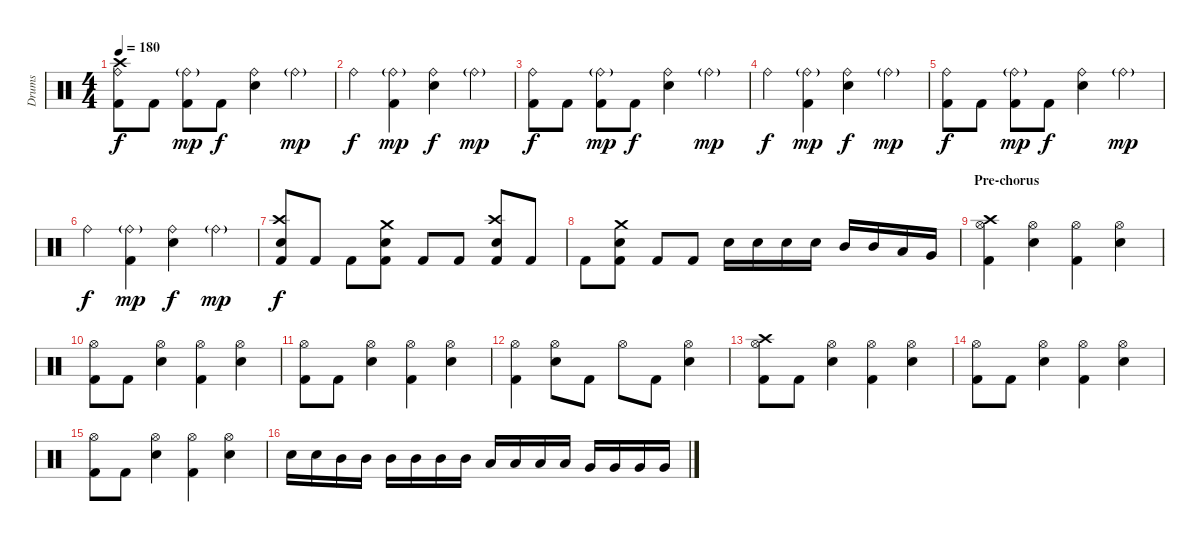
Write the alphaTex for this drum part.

\track ("Drums" "Drums") {instrument percussion}
\staff {score}
\articulation defaults
\ts (4 4)
\tempo 180
\clef neutral
\ks c
("Ride (bell)" "Kick (hit) 2" "Crash high (hit)").8{dy f} "Kick (hit) 2".8 ("Ride (bell)"{g} "Kick (hit) 2").8{dy mp} "Kick (hit) 2".8{dy f} ("Ride (bell)" "Electric Snare (hit)").4 "Ride (bell)"{g}.4{dy mp} |
"Ride (bell)".4{dy f} ("Ride (bell)"{g} "Kick (hit) 2").4{dy mp} ("Ride (bell)" "Electric Snare (hit)").4{dy f} "Ride (bell)"{g}.4{dy mp} |
("Ride (bell)" "Kick (hit) 2").8{dy f} "Kick (hit) 2".8 ("Ride (bell)"{g} "Kick (hit) 2").8{dy mp} "Kick (hit) 2".8{dy f} ("Ride (bell)" "Electric Snare (hit)").4 "Ride (bell)"{g}.4{dy mp} |
"Ride (bell)".4{dy f} ("Ride (bell)"{g} "Kick (hit) 2").4{dy mp} ("Ride (bell)" "Electric Snare (hit)").4{dy f} "Ride (bell)"{g}.4{dy mp} |
("Ride (bell)" "Kick (hit) 2").8{dy f} "Kick (hit) 2".8 ("Ride (bell)"{g} "Kick (hit) 2").8{dy mp} "Kick (hit) 2".8{dy f} ("Ride (bell)" "Electric Snare (hit)").4 "Ride (bell)"{g}.4{dy mp} |
"Ride (bell)".4{dy f} ("Ride (bell)"{g} "Kick (hit) 2").4{dy mp} ("Ride (bell)" "Electric Snare (hit)").4{dy f} "Ride (bell)"{g}.4{dy mp} |
("Kick (hit) 2" "Electric Snare (hit)" "Crash high (hit)").8{dy f} "Kick (hit) 2".8 "Kick (hit) 2".8 ("Kick (hit) 2" "Electric Snare (hit)" "Crash medium (hit)").8 "Kick (hit) 2".8 "Kick (hit) 2".8 ("Kick (hit) 2" "Electric Snare (hit)" "Crash high (hit)").8 "Kick (hit) 2".8 |
"Kick (hit) 2".8 ("Kick (hit) 2" "Electric Snare (hit)" "Crash medium (hit)").8 "Kick (hit) 2".8 "Kick (hit) 2".8 "Electric Snare (hit)".16 "Electric Snare (hit)".16 "Electric Snare (hit)".16 "Electric Snare (hit)".16 "Mid Tom (hit)".16 "Mid Tom (hit)".16 "Low Tom (hit)".16 "Very Low Tom (hit)".16 |
\section ("" "Pre-chorus")
("Hi-Hat (open)" "Kick (hit) 2" "Crash high (hit)").4 ("Hi-Hat (open)" "Electric Snare (hit)").4 ("Hi-Hat (open)" "Kick (hit) 2").4 ("Hi-Hat (open)" "Electric Snare (hit)").4 |
("Hi-Hat (open)" "Kick (hit) 2").8 "Kick (hit) 2".8 ("Hi-Hat (open)" "Electric Snare (hit)").4 ("Hi-Hat (open)" "Kick (hit) 2").4 ("Hi-Hat (open)" "Electric Snare (hit)").4 |
("Hi-Hat (open)" "Kick (hit) 2").8 "Kick (hit) 2".8 ("Hi-Hat (open)" "Electric Snare (hit)").4 ("Hi-Hat (open)" "Kick (hit) 2").4 ("Hi-Hat (open)" "Electric Snare (hit)").4 |
("Hi-Hat (open)" "Kick (hit) 2").4 ("Hi-Hat (open)" "Electric Snare (hit)").8 "Kick (hit) 2".8 "Hi-Hat (open)".8 "Kick (hit) 2".8 ("Hi-Hat (open)" "Electric Snare (hit)").4 |
("Hi-Hat (open)" "Kick (hit) 2" "Crash high (hit)").8 "Kick (hit) 2".8 ("Hi-Hat (open)" "Electric Snare (hit)").4 ("Hi-Hat (open)" "Kick (hit) 2").4 ("Hi-Hat (open)" "Electric Snare (hit)").4 |
("Hi-Hat (open)" "Kick (hit) 2").8 "Kick (hit) 2".8 ("Hi-Hat (open)" "Electric Snare (hit)").4 ("Hi-Hat (open)" "Kick (hit) 2").4 ("Hi-Hat (open)" "Electric Snare (hit)").4 |
("Hi-Hat (open)" "Kick (hit) 2").8 "Kick (hit) 2".8 ("Hi-Hat (open)" "Electric Snare (hit)").4 ("Hi-Hat (open)" "Kick (hit) 2").4 ("Hi-Hat (open)" "Electric Snare (hit)").4 |
"Electric Snare (hit)".16 "Electric Snare (hit)".16 "Mid Tom (hit)".16 "Mid Tom (hit)".16 "Mid Tom (hit)".16 "Mid Tom (hit)".16 "Mid Tom (hit)".16 "Mid Tom (hit)".16 "Low Tom (hit)".16 "Low Tom (hit)".16 "Low Tom (hit)".16 "Low Tom (hit)".16 "Very Low Tom (hit)".16 "Very Low Tom (hit)".16 "Very Low Tom (hit)".16 "Very Low Tom (hit)".16
